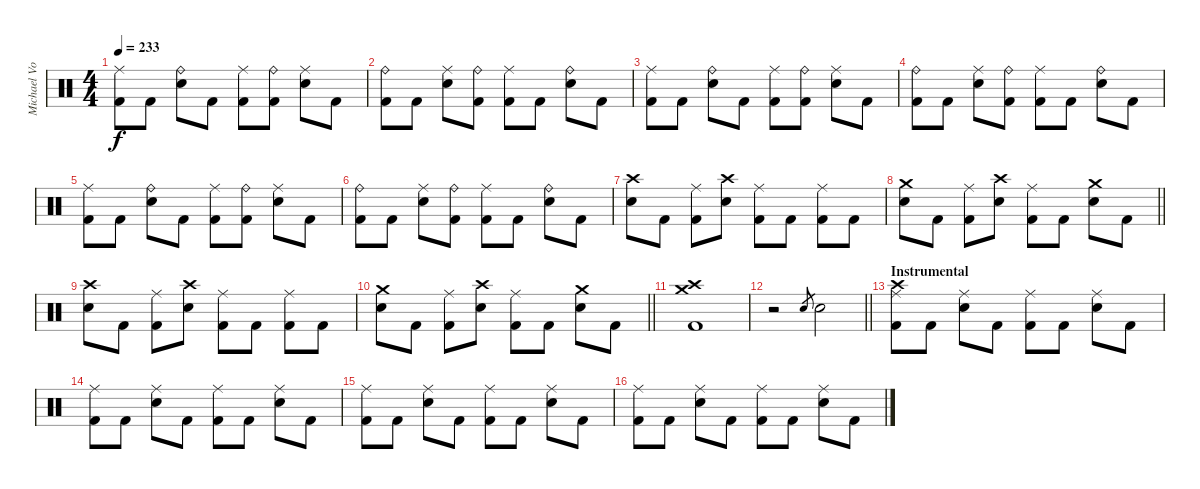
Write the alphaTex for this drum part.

\track ("Michael Von Knorring" "Michael Vo") {instrument percussion}
\staff {score}
\articulation defaults
\ts (4 4)
\tempo 233
\clef neutral
\ks c
("Ride (middle)" "Kick (hit) 2").8{dy f} "Kick (hit) 2".8 ("Ride (bell)" "Snare (hit) 2").8 "Kick (hit) 2".8 ("Ride (middle)" "Kick (hit) 2").8 ("Ride (bell)" "Kick (hit) 2").8 ("Ride (middle)" "Snare (hit) 2").8 "Kick (hit) 2".8 |
("Ride (bell)" "Kick (hit) 2").8 "Kick (hit) 2".8 ("Ride (middle)" "Snare (hit) 2").8 ("Ride (bell)" "Kick (hit) 2").8 ("Ride (middle)" "Kick (hit) 2").8 "Kick (hit) 2".8 ("Ride (bell)" "Snare (hit) 2").8 "Kick (hit) 2".8 |
("Ride (middle)" "Kick (hit) 2").8 "Kick (hit) 2".8 ("Ride (bell)" "Snare (hit) 2").8 "Kick (hit) 2".8 ("Ride (middle)" "Kick (hit) 2").8 ("Ride (bell)" "Kick (hit) 2").8 ("Ride (middle)" "Snare (hit) 2").8 "Kick (hit) 2".8 |
("Ride (bell)" "Kick (hit) 2").8 "Kick (hit) 2".8 ("Ride (middle)" "Snare (hit) 2").8 ("Ride (bell)" "Kick (hit) 2").8 ("Ride (middle)" "Kick (hit) 2").8 "Kick (hit) 2".8 ("Ride (bell)" "Snare (hit) 2").8 "Kick (hit) 2".8 |
("Ride (middle)" "Kick (hit) 2").8 "Kick (hit) 2".8 ("Ride (bell)" "Snare (hit) 2").8 "Kick (hit) 2".8 ("Ride (middle)" "Kick (hit) 2").8 ("Ride (bell)" "Kick (hit) 2").8 ("Ride (middle)" "Snare (hit) 2").8 "Kick (hit) 2".8 |
("Ride (bell)" "Kick (hit) 2").8 "Kick (hit) 2".8 ("Ride (middle)" "Snare (hit) 2").8 ("Ride (bell)" "Kick (hit) 2").8 ("Ride (middle)" "Kick (hit) 2").8 "Kick (hit) 2".8 ("Ride (bell)" "Snare (hit) 2").8 "Kick (hit) 2".8 |
("Crash high (hit)" "Snare (hit) 2").8 "Kick (hit) 2".8 ("Ride (middle)" "Kick (hit) 2").8 ("Crash high (hit)" "Snare (hit) 2").8 ("Ride (middle)" "Kick (hit) 2").8 "Kick (hit) 2".8 ("Ride (middle)" "Kick (hit) 2").8 "Kick (hit) 2".8 |
\barLineRight lightlight
("Crash medium (hit)" "Snare (hit) 2").8 "Kick (hit) 2".8 ("Ride (middle)" "Kick (hit) 2").8 ("Crash high (hit)" "Snare (hit) 2").8 ("Ride (middle)" "Kick (hit) 2").8 "Kick (hit) 2".8 ("Crash medium (hit)" "Snare (hit) 2").8 "Kick (hit) 2".8 |
("Crash high (hit)" "Snare (hit) 2").8 "Kick (hit) 2".8 ("Ride (middle)" "Kick (hit) 2").8 ("Crash high (hit)" "Snare (hit) 2").8 ("Ride (middle)" "Kick (hit) 2").8 "Kick (hit) 2".8 ("Ride (middle)" "Kick (hit) 2").8 "Kick (hit) 2".8 |
\barLineRight lightlight
("Crash medium (hit)" "Snare (hit) 2").8 "Kick (hit) 2".8 ("Ride (middle)" "Kick (hit) 2").8 ("Crash high (hit)" "Snare (hit) 2").8 ("Ride (middle)" "Kick (hit) 2").8 "Kick (hit) 2".8 ("Crash medium (hit)" "Snare (hit) 2").8 "Kick (hit) 2".8 |
("Crash high (hit)" "Crash medium (hit)" "Kick (hit) 2").1 |
\barLineRight lightlight
r.2 "Snare (hit) 2".8{gr} "Snare (hit) 2".2 |
\section ("" "Instrumental")
("Crash high (hit)" "Ride (middle)" "Kick (hit) 2").8 "Kick (hit) 2".8 ("Ride (middle)" "Snare (hit) 2").8 "Kick (hit) 2".8 ("Ride (middle)" "Kick (hit) 2").8 "Kick (hit) 2".8 ("Ride (middle)" "Snare (hit) 2").8 "Kick (hit) 2".8 |
("Ride (middle)" "Kick (hit) 2").8 "Kick (hit) 2".8 ("Ride (middle)" "Snare (hit) 2").8 "Kick (hit) 2".8 ("Ride (middle)" "Kick (hit) 2").8 "Kick (hit) 2".8 ("Ride (middle)" "Snare (hit) 2").8 "Kick (hit) 2".8 |
("Ride (middle)" "Kick (hit) 2").8 "Kick (hit) 2".8 ("Ride (middle)" "Snare (hit) 2").8 "Kick (hit) 2".8 ("Ride (middle)" "Kick (hit) 2").8 "Kick (hit) 2".8 ("Ride (middle)" "Snare (hit) 2").8 "Kick (hit) 2".8 |
("Ride (middle)" "Kick (hit) 2").8 "Kick (hit) 2".8 ("Ride (middle)" "Snare (hit) 2").8 "Kick (hit) 2".8 ("Ride (middle)" "Kick (hit) 2").8 "Kick (hit) 2".8 ("Ride (middle)" "Snare (hit) 2").8 "Kick (hit) 2".8
